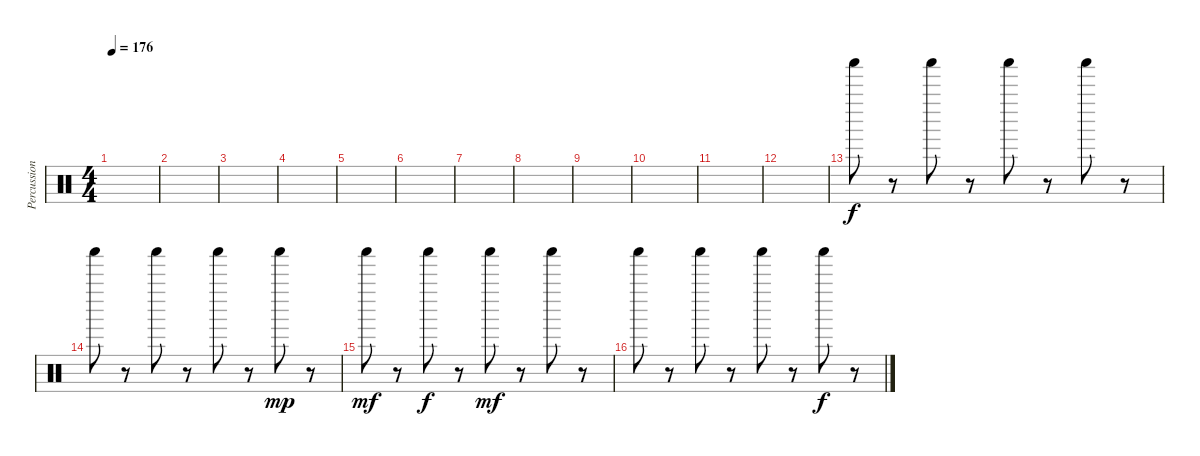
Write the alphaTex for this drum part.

\track ("Percussion" "Percussion") {instrument percussion}
\staff {score}
\articulation defaults
\ts (4 4)
\tempo 176
\clef neutral
\ks c
|
|
|
|
|
|
|
|
|
|
|
|
"Shaker (hit)".8{balance 0} r.8 "Shaker (hit)".8 r.8 "Shaker (hit)".8 r.8 "Shaker (hit)".8 r.8 |
"Shaker (hit)".8 r.8 "Shaker (hit)".8 r.8 "Shaker (hit)".8{dy f} r.8 "Shaker (hit)".8{dy mp} r.8 |
"Shaker (hit)".8{dy mf} r.8 "Shaker (hit)".8{dy f} r.8 "Shaker (hit)".8{dy mf} r.8 "Shaker (hit)".8 r.8 |
"Shaker (hit)".8 r.8 "Shaker (hit)".8 r.8 "Shaker (hit)".8 r.8 "Shaker (hit)".8{dy f} r.8
